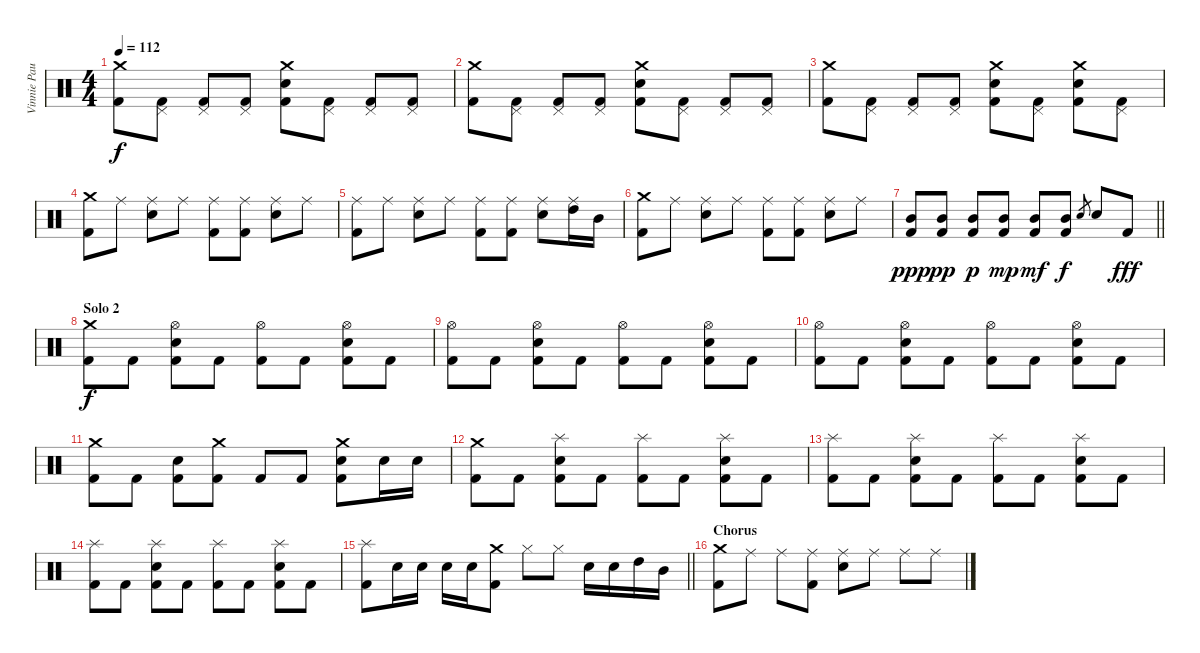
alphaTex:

\track ("Vinnie Paul" "Vinnie Pau") {instrument percussion}
\staff {score}
\articulation defaults
\ts (4 4)
\tempo 112
\clef neutral
\ks c
("Crash medium (hit)" "Kick (hit) 2").8{dy f} ("Pedal Hi-Hat (hit)" "Kick (hit) 2").8 ("Pedal Hi-Hat (hit)" "Kick (hit) 2").8 ("Pedal Hi-Hat (hit)" "Kick (hit) 2").8 ("Crash medium (hit)" "Electric Snare (hit)" "Kick (hit) 2").8 ("Pedal Hi-Hat (hit)" "Kick (hit) 2").8 ("Pedal Hi-Hat (hit)" "Kick (hit) 2").8 ("Pedal Hi-Hat (hit)" "Kick (hit) 2").8 |
("Crash medium (hit)" "Kick (hit) 2").8 ("Pedal Hi-Hat (hit)" "Kick (hit) 2").8 ("Pedal Hi-Hat (hit)" "Kick (hit) 2").8 ("Pedal Hi-Hat (hit)" "Kick (hit) 2").8 ("Crash medium (hit)" "Electric Snare (hit)" "Kick (hit) 2").8 ("Pedal Hi-Hat (hit)" "Kick (hit) 2").8 ("Pedal Hi-Hat (hit)" "Kick (hit) 2").8 ("Pedal Hi-Hat (hit)" "Kick (hit) 2").8 |
("Crash medium (hit)" "Kick (hit) 2").8 ("Pedal Hi-Hat (hit)" "Kick (hit) 2").8 ("Pedal Hi-Hat (hit)" "Kick (hit) 2").8 ("Pedal Hi-Hat (hit)" "Kick (hit) 2").8 ("Crash medium (hit)" "Electric Snare (hit)" "Kick (hit) 2").8 ("Pedal Hi-Hat (hit)" "Kick (hit) 2").8 ("Crash medium (hit)" "Electric Snare (hit)" "Kick (hit) 2").8 ("Pedal Hi-Hat (hit)" "Kick (hit) 2").8 |
("Crash medium (hit)" "Kick (hit) 2").8 "Ride (middle)".8 ("Ride (middle)" "Electric Snare (hit)").8 "Ride (middle)".8 ("Ride (middle)" "Kick (hit) 2").8 ("Ride (middle)" "Kick (hit) 2").8 ("Ride (middle)" "Electric Snare (hit)").8 "Ride (middle)".8 |
("Ride (middle)" "Kick (hit) 2").8 "Ride (middle)".8 ("Ride (middle)" "Electric Snare (hit)").8 "Ride (middle)".8 ("Ride (middle)" "Kick (hit) 2").8 ("Ride (middle)" "Kick (hit) 2").8 ("Ride (middle)" "Electric Snare (hit)").8 ("Ride (middle)" "High Tom (hit)").16 "Mid Tom (hit)".16 |
("Crash medium (hit)" "Kick (hit) 2").8 "Ride (middle)".8 ("Ride (middle)" "Electric Snare (hit)").8 "Ride (middle)".8 ("Ride (middle)" "Kick (hit) 2").8 ("Ride (middle)" "Kick (hit) 2").8 ("Ride (middle)" "Electric Snare (hit)").8 "Ride (middle)".8 |
\barLineRight lightlight
("Mid Tom (hit)" "Kick (hit) 2").8{dy ppp} ("Mid Tom (hit)" "Kick (hit) 2").8{dy pp} ("Mid Tom (hit)" "Kick (hit) 2").8{dy p} ("Mid Tom (hit)" "Kick (hit) 2").8{dy mp} ("Mid Tom (hit)" "Kick (hit) 2").8{dy mf} ("Mid Tom (hit)" "Kick (hit) 2").8{dy f} "Electric Snare (hit)".8{gr} "Electric Snare (hit)".8 "Kick (hit) 2".8{dy fff} |
\section ("" "Solo 2")
("Crash medium (hit)" "Kick (hit) 2").8{dy f} "Kick (hit) 2".8 ("Hi-Hat (open)" "Electric Snare (hit)" "Kick (hit) 2").8 "Kick (hit) 2".8 ("Hi-Hat (open)" "Kick (hit) 2").8 "Kick (hit) 2".8 ("Hi-Hat (open)" "Electric Snare (hit)" "Kick (hit) 2").8 "Kick (hit) 2".8 |
("Hi-Hat (open)" "Kick (hit) 2").8 "Kick (hit) 2".8 ("Hi-Hat (open)" "Electric Snare (hit)" "Kick (hit) 2").8 "Kick (hit) 2".8 ("Hi-Hat (open)" "Kick (hit) 2").8 "Kick (hit) 2".8 ("Hi-Hat (open)" "Electric Snare (hit)" "Kick (hit) 2").8 "Kick (hit) 2".8 |
("Hi-Hat (open)" "Kick (hit) 2").8 "Kick (hit) 2".8 ("Hi-Hat (open)" "Electric Snare (hit)" "Kick (hit) 2").8 "Kick (hit) 2".8 ("Hi-Hat (open)" "Kick (hit) 2").8 "Kick (hit) 2".8 ("Hi-Hat (open)" "Electric Snare (hit)" "Kick (hit) 2").8 "Kick (hit) 2".8 |
("Crash medium (hit)" "Kick (hit) 2").8 "Kick (hit) 2".8 ("Electric Snare (hit)" "Kick (hit) 2").8 ("Crash medium (hit)" "Kick (hit) 2").8 "Kick (hit) 2".8 "Kick (hit) 2".8 ("Crash medium (hit)" "Electric Snare (hit)" "Kick (hit) 2").8 "Electric Snare (hit)".16 "Electric Snare (hit)".16 |
("Crash medium (hit)" "Kick (hit) 2").8 "Kick (hit) 2".8 ("Splash (hit)" "Electric Snare (hit)" "Kick (hit) 2").8 "Kick (hit) 2".8 ("Splash (hit)" "Kick (hit) 2").8 "Kick (hit) 2".8 ("Splash (hit)" "Electric Snare (hit)" "Kick (hit) 2").8 "Kick (hit) 2".8 |
("Splash (hit)" "Kick (hit) 2").8 "Kick (hit) 2".8 ("Splash (hit)" "Electric Snare (hit)" "Kick (hit) 2").8 "Kick (hit) 2".8 ("Splash (hit)" "Kick (hit) 2").8 "Kick (hit) 2".8 ("Splash (hit)" "Electric Snare (hit)" "Kick (hit) 2").8 "Kick (hit) 2".8 |
("Splash (hit)" "Kick (hit) 2").8 "Kick (hit) 2".8 ("Splash (hit)" "Electric Snare (hit)" "Kick (hit) 2").8 "Kick (hit) 2".8 ("Splash (hit)" "Kick (hit) 2").8 "Kick (hit) 2".8 ("Splash (hit)" "Electric Snare (hit)" "Kick (hit) 2").8 "Kick (hit) 2".8 |
\barLineRight lightlight
("Splash (hit)" "Kick (hit) 2").8 "Electric Snare (hit)".16 "Electric Snare (hit)".16 "Electric Snare (hit)".16 "Electric Snare (hit)".16 ("Crash medium (hit)" "Kick (hit) 2").8 "Hi-Hat (closed)".8 "Hi-Hat (closed)".8 "Electric Snare (hit)".16 "Electric Snare (hit)".16 "High Tom (hit)".16 "Mid Tom (hit)".16 |
\section ("" "Chorus")
("Crash medium (hit)" "Kick (hit) 2").8 "Ride (middle)".8 "Ride (middle)".8 ("Ride (middle)" "Kick (hit) 2").8 ("Ride (middle)" "Electric Snare (hit)").8 "Ride (middle)".8 "Ride (middle)".8 "Ride (middle)".8
